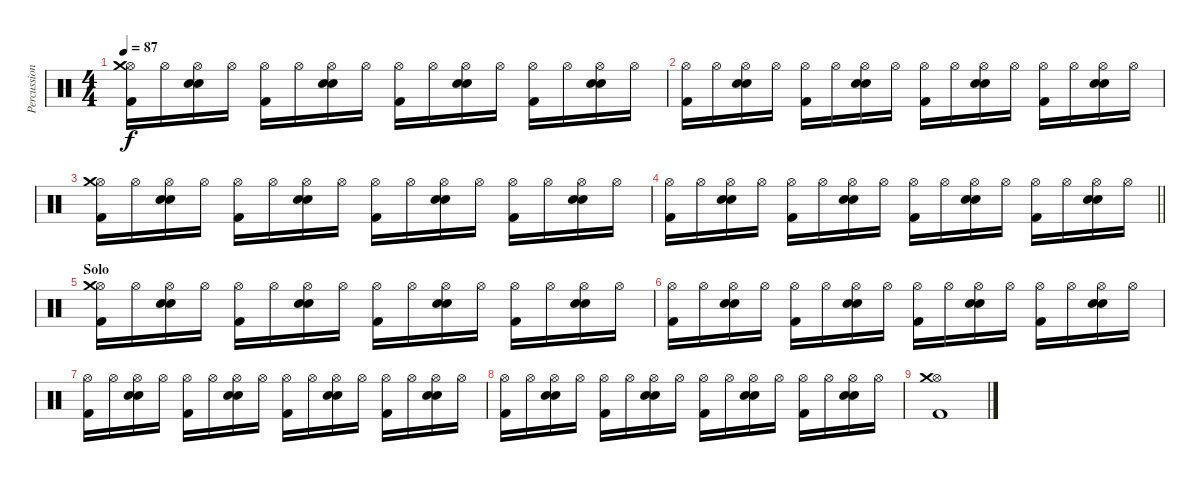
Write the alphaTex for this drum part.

\track ("Percussion" "Percussion") {instrument percussion}
\staff {score}
\articulation defaults
\ts (4 4)
\tempo 87
\clef neutral
\ks c
("Hi-Hat (open)" "Crash medium (hit)" "Kick (hit) 2").16{dy f} "Hi-Hat (open)".16 ("Hi-Hat (open)" "Snare (hit) 2" "Electric Snare (hit)").16 "Hi-Hat (open)".16 ("Hi-Hat (open)" "Kick (hit) 2").16 "Hi-Hat (open)".16 ("Hi-Hat (open)" "Snare (hit) 2" "Electric Snare (hit)").16 "Hi-Hat (open)".16 ("Hi-Hat (open)" "Kick (hit) 2").16 "Hi-Hat (open)".16 ("Hi-Hat (open)" "Snare (hit) 2" "Electric Snare (hit)").16 "Hi-Hat (open)".16 ("Hi-Hat (open)" "Kick (hit) 2").16 "Hi-Hat (open)".16 ("Hi-Hat (open)" "Snare (hit) 2" "Electric Snare (hit)").16 "Hi-Hat (open)".16 |
("Hi-Hat (open)" "Kick (hit) 2").16 "Hi-Hat (open)".16 ("Hi-Hat (open)" "Snare (hit) 2" "Electric Snare (hit)").16 "Hi-Hat (open)".16 ("Hi-Hat (open)" "Kick (hit) 2").16 "Hi-Hat (open)".16 ("Hi-Hat (open)" "Snare (hit) 2" "Electric Snare (hit)").16 "Hi-Hat (open)".16 ("Hi-Hat (open)" "Kick (hit) 2").16 "Hi-Hat (open)".16 ("Hi-Hat (open)" "Snare (hit) 2" "Electric Snare (hit)").16 "Hi-Hat (open)".16 ("Hi-Hat (open)" "Kick (hit) 2").16 "Hi-Hat (open)".16 ("Hi-Hat (open)" "Snare (hit) 2" "Electric Snare (hit)").16 "Hi-Hat (open)".16 |
("Hi-Hat (open)" "Crash medium (hit)" "Kick (hit) 2").16 "Hi-Hat (open)".16 ("Hi-Hat (open)" "Snare (hit) 2" "Electric Snare (hit)").16 "Hi-Hat (open)".16 ("Hi-Hat (open)" "Kick (hit) 2").16 "Hi-Hat (open)".16 ("Hi-Hat (open)" "Snare (hit) 2" "Electric Snare (hit)").16 "Hi-Hat (open)".16 ("Hi-Hat (open)" "Kick (hit) 2").16 "Hi-Hat (open)".16 ("Hi-Hat (open)" "Snare (hit) 2" "Electric Snare (hit)").16 "Hi-Hat (open)".16 ("Hi-Hat (open)" "Kick (hit) 2").16 "Hi-Hat (open)".16 ("Hi-Hat (open)" "Snare (hit) 2" "Electric Snare (hit)").16 "Hi-Hat (open)".16 |
\barLineRight lightlight
("Hi-Hat (open)" "Kick (hit) 2").16 "Hi-Hat (open)".16 ("Hi-Hat (open)" "Snare (hit) 2" "Electric Snare (hit)").16 "Hi-Hat (open)".16 ("Hi-Hat (open)" "Kick (hit) 2").16 "Hi-Hat (open)".16 ("Hi-Hat (open)" "Snare (hit) 2" "Electric Snare (hit)").16 "Hi-Hat (open)".16 ("Hi-Hat (open)" "Kick (hit) 2").16 "Hi-Hat (open)".16 ("Hi-Hat (open)" "Snare (hit) 2" "Electric Snare (hit)").16 "Hi-Hat (open)".16 ("Hi-Hat (open)" "Kick (hit) 2").16 "Hi-Hat (open)".16 ("Hi-Hat (open)" "Snare (hit) 2" "Electric Snare (hit)").16 "Hi-Hat (open)".16 |
\section ("" "Solo")
("Hi-Hat (open)" "Crash medium (hit)" "Kick (hit) 2").16 "Hi-Hat (open)".16 ("Hi-Hat (open)" "Snare (hit) 2" "Electric Snare (hit)").16 "Hi-Hat (open)".16 ("Hi-Hat (open)" "Kick (hit) 2").16 "Hi-Hat (open)".16 ("Hi-Hat (open)" "Snare (hit) 2" "Electric Snare (hit)").16 "Hi-Hat (open)".16 ("Hi-Hat (open)" "Kick (hit) 2").16 "Hi-Hat (open)".16 ("Hi-Hat (open)" "Snare (hit) 2" "Electric Snare (hit)").16 "Hi-Hat (open)".16 ("Hi-Hat (open)" "Kick (hit) 2").16 "Hi-Hat (open)".16 ("Hi-Hat (open)" "Snare (hit) 2" "Electric Snare (hit)").16 "Hi-Hat (open)".16 |
("Hi-Hat (open)" "Kick (hit) 2").16 "Hi-Hat (open)".16 ("Hi-Hat (open)" "Snare (hit) 2" "Electric Snare (hit)").16 "Hi-Hat (open)".16 ("Hi-Hat (open)" "Kick (hit) 2").16 "Hi-Hat (open)".16 ("Hi-Hat (open)" "Snare (hit) 2" "Electric Snare (hit)").16 "Hi-Hat (open)".16 ("Hi-Hat (open)" "Kick (hit) 2").16 "Hi-Hat (open)".16 ("Hi-Hat (open)" "Snare (hit) 2" "Electric Snare (hit)").16 "Hi-Hat (open)".16 ("Hi-Hat (open)" "Kick (hit) 2").16 "Hi-Hat (open)".16 ("Hi-Hat (open)" "Snare (hit) 2" "Electric Snare (hit)").16 "Hi-Hat (open)".16 |
("Hi-Hat (open)" "Kick (hit) 2").16 "Hi-Hat (open)".16 ("Hi-Hat (open)" "Snare (hit) 2" "Electric Snare (hit)").16 "Hi-Hat (open)".16 ("Hi-Hat (open)" "Kick (hit) 2").16 "Hi-Hat (open)".16 ("Hi-Hat (open)" "Snare (hit) 2" "Electric Snare (hit)").16 "Hi-Hat (open)".16 ("Hi-Hat (open)" "Kick (hit) 2").16 "Hi-Hat (open)".16 ("Hi-Hat (open)" "Snare (hit) 2" "Electric Snare (hit)").16 "Hi-Hat (open)".16 ("Hi-Hat (open)" "Kick (hit) 2").16 "Hi-Hat (open)".16 ("Hi-Hat (open)" "Snare (hit) 2" "Electric Snare (hit)").16 "Hi-Hat (open)".16 |
("Hi-Hat (open)" "Kick (hit) 2").16 "Hi-Hat (open)".16 ("Hi-Hat (open)" "Snare (hit) 2" "Electric Snare (hit)").16 "Hi-Hat (open)".16 ("Hi-Hat (open)" "Kick (hit) 2").16 "Hi-Hat (open)".16 ("Hi-Hat (open)" "Snare (hit) 2" "Electric Snare (hit)").16 "Hi-Hat (open)".16 ("Hi-Hat (open)" "Kick (hit) 2").16 "Hi-Hat (open)".16 ("Hi-Hat (open)" "Snare (hit) 2" "Electric Snare (hit)").16 "Hi-Hat (open)".16 ("Hi-Hat (open)" "Kick (hit) 2").16 "Hi-Hat (open)".16 ("Hi-Hat (open)" "Snare (hit) 2" "Electric Snare (hit)").16 "Hi-Hat (open)".16 |
("Hi-Hat (open)" "Crash medium (hit)" "Kick (hit) 2").1
